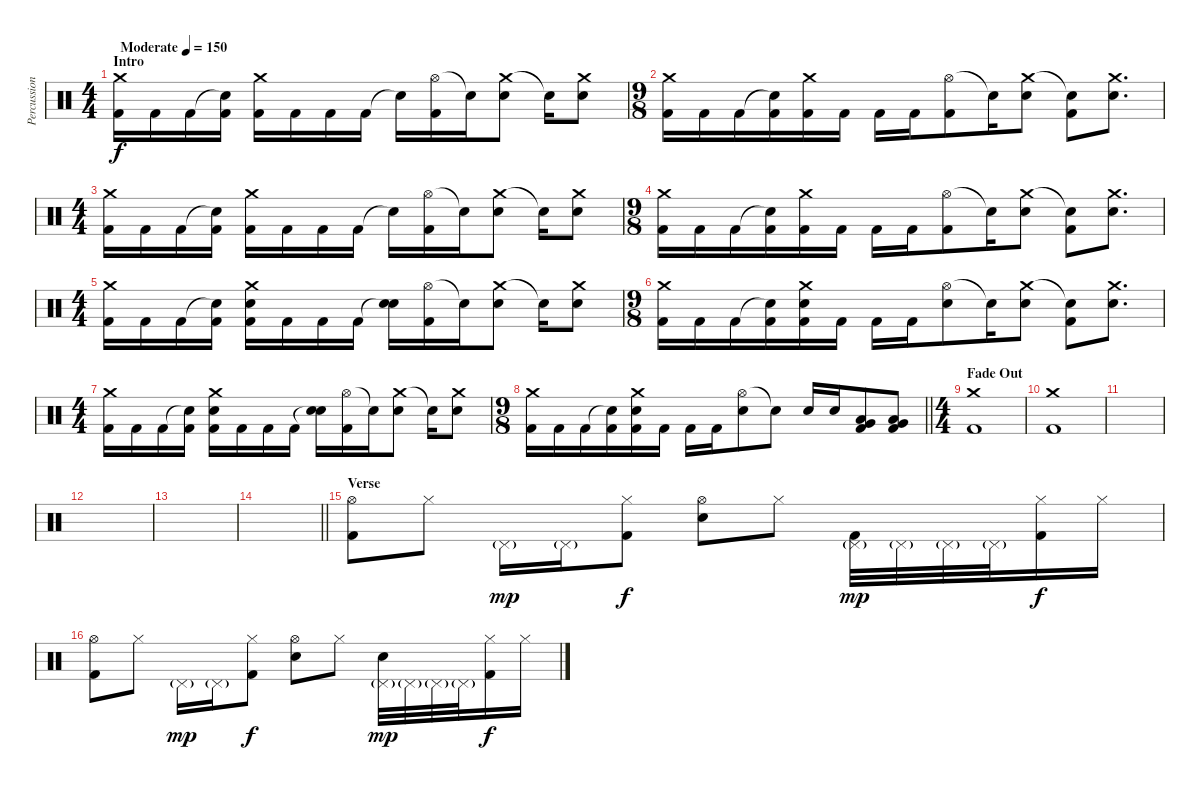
\track ("Percussion" "Percussion") {instrument percussion}
\staff {score}
\articulation defaults
\ts (4 4)
\section ("" "Intro")
\tempo (150 "Moderate")
\clef neutral
\ks c
("Crash medium (hit)" "Kick (hit) 2").16{dy f} "Kick (hit) 2".16 "Kick (hit) 2".16 ("Snare (hit)"{t} "Kick (hit) 2").16 ("Crash medium (hit)" "Kick (hit) 2").16 "Kick (hit) 2".16 "Kick (hit) 2".16 "Kick (hit) 2".16 "Snare (hit)"{t}.16 ("Hi-Hat (open)" "Kick (hit) 2").16 "Snare (hit)"{t}.16 ("Crash medium (hit)" "Electric Snare (hit)").8 "Snare (hit)"{t}.16 ("Crash medium (hit)" "Electric Snare (hit)").8 |
\ts (9 8)
("Crash medium (hit)" "Kick (hit) 2").16 "Kick (hit) 2".16 "Kick (hit) 2".16 ("Snare (hit)"{t} "Kick (hit) 2").16 ("Crash medium (hit)" "Kick (hit) 2").16 "Kick (hit) 2".16 "Kick (hit) 2".16 "Kick (hit) 2".16 ("Hi-Hat (open)" "Kick (hit) 2").8 "Snare (hit)"{t}.16 ("Crash medium (hit)" "Electric Snare (hit)").8 ("Snare (hit)"{t} "Kick (hit) 2").8 ("Crash medium (hit)" "Electric Snare (hit)").8{d} |
\ts (4 4)
("Crash medium (hit)" "Kick (hit) 2").16 "Kick (hit) 2".16 "Kick (hit) 2".16 ("Snare (hit)"{t} "Kick (hit) 2").16 ("Crash medium (hit)" "Kick (hit) 2").16 "Kick (hit) 2".16 "Kick (hit) 2".16 "Kick (hit) 2".16 "Snare (hit)"{t}.16 ("Hi-Hat (open)" "Kick (hit) 2").16 "Snare (hit)"{t}.16 ("Crash medium (hit)" "Electric Snare (hit)").8 "Snare (hit)"{t}.16 ("Crash medium (hit)" "Electric Snare (hit)").8 |
\ts (9 8)
("Crash medium (hit)" "Kick (hit) 2").16 "Kick (hit) 2".16 "Kick (hit) 2".16 ("Snare (hit)"{t} "Kick (hit) 2").16 ("Crash medium (hit)" "Kick (hit) 2").16 "Kick (hit) 2".16 "Kick (hit) 2".16 "Kick (hit) 2".16 ("Hi-Hat (open)" "Kick (hit) 2").8 "Snare (hit)"{t}.16 ("Crash medium (hit)" "Electric Snare (hit)").8 ("Snare (hit)"{t} "Kick (hit) 2").8 ("Crash medium (hit)" "Electric Snare (hit)").8{d} |
\ts (4 4)
("Crash medium (hit)" "Kick (hit) 2").16 "Kick (hit) 2".16 "Kick (hit) 2".16 ("Snare (hit)"{t} "Kick (hit) 2").16 ("Crash medium (hit)" "Electric Snare (hit)" "Kick (hit) 2").16 "Kick (hit) 2".16 "Kick (hit) 2".16 "Kick (hit) 2".16 ("Snare (hit)"{t} "Electric Snare (hit)").16 ("Hi-Hat (open)" "Kick (hit) 2").16 "Snare (hit)"{t}.16 ("Crash medium (hit)" "Electric Snare (hit)").8 "Snare (hit)"{t}.16 ("Crash medium (hit)" "Electric Snare (hit)").8 |
\ts (9 8)
("Crash medium (hit)" "Kick (hit) 2").16 "Kick (hit) 2".16 "Kick (hit) 2".16 ("Snare (hit)"{t} "Kick (hit) 2").16 ("Crash medium (hit)" "Electric Snare (hit)" "Kick (hit) 2").16 "Kick (hit) 2".16 "Kick (hit) 2".16 "Kick (hit) 2".16 ("Hi-Hat (open)" "Electric Snare (hit)").8 "Snare (hit)"{t}.16 ("Crash medium (hit)" "Electric Snare (hit)").8 ("Snare (hit)"{t} "Kick (hit) 2").8 ("Crash medium (hit)" "Electric Snare (hit)").8{d} |
\ts (4 4)
("Crash medium (hit)" "Kick (hit) 2").16 "Kick (hit) 2".16 "Kick (hit) 2".16 ("Snare (hit)"{t} "Kick (hit) 2").16 ("Crash medium (hit)" "Electric Snare (hit)" "Kick (hit) 2").16 "Kick (hit) 2".16 "Kick (hit) 2".16 "Kick (hit) 2".16 ("Snare (hit)"{t} "Electric Snare (hit)").16 ("Hi-Hat (open)" "Kick (hit) 2").16 "Snare (hit)"{t}.16 ("Crash medium (hit)" "Electric Snare (hit)").8 "Snare (hit)"{t}.16 ("Crash medium (hit)" "Electric Snare (hit)").8 |
\ts (9 8)
\barLineRight lightlight
("Crash medium (hit)" "Kick (hit) 2").16 "Kick (hit) 2".16 "Kick (hit) 2".16 ("Snare (hit)"{t} "Kick (hit) 2").16 ("Crash medium (hit)" "Electric Snare (hit)" "Kick (hit) 2").16 "Kick (hit) 2".16 "Kick (hit) 2".16 "Kick (hit) 2".16 ("Hi-Hat (open)" "Electric Snare (hit)").8 "Snare (hit)"{t}.8 "Electric Snare (hit)".16 "Electric Snare (hit)".16 ("Very Low Tom (hit)" "Low Floor Tom (hit)" "Kick (hit) 2").8 ("Very Low Tom (hit)" "Low Floor Tom (hit)" "Kick (hit) 2").8 |
\ts (4 4)
\section ("" "Fade Out")
("Crash medium (hit)" "Kick (hit) 2").1{volume 0} |
("Crash medium (hit)" "Kick (hit) 2").1 |
|
|
|
\barLineRight lightlight
|
\section ("" "Verse")
("Hi-Hat (open)" "Kick (hit) 2").8{volume 15} "Hi-Hat (closed)".8 "Pedal Hi-Hat (hit)"{g}.16{dy mp} "Pedal Hi-Hat (hit)"{g}.16 ("Hi-Hat (closed)" "Kick (hit) 2").8{dy f} ("Hi-Hat (open)" "Electric Snare (hit)").8 "Hi-Hat (closed)".8 ("Pedal Hi-Hat (hit)"{g} "Kick (hit) 2").32{dy mp} "Pedal Hi-Hat (hit)"{g}.32 "Pedal Hi-Hat (hit)"{g}.32 "Pedal Hi-Hat (hit)"{g}.32 ("Hi-Hat (closed)" "Kick (hit) 2").16{dy f} "Hi-Hat (closed)".16 |
("Hi-Hat (open)" "Kick (hit) 2").8 "Hi-Hat (closed)".8 "Pedal Hi-Hat (hit)"{g}.16{dy mp} "Pedal Hi-Hat (hit)"{g}.16 ("Hi-Hat (closed)" "Kick (hit) 2").8{dy f} ("Hi-Hat (open)" "Electric Snare (hit)").8 "Hi-Hat (closed)".8 ("Pedal Hi-Hat (hit)"{g} "Electric Snare (hit)").32{dy mp} "Pedal Hi-Hat (hit)"{g}.32 "Pedal Hi-Hat (hit)"{g}.32 "Pedal Hi-Hat (hit)"{g}.32 ("Hi-Hat (closed)" "Kick (hit) 2").16{dy f} "Hi-Hat (closed)".16
